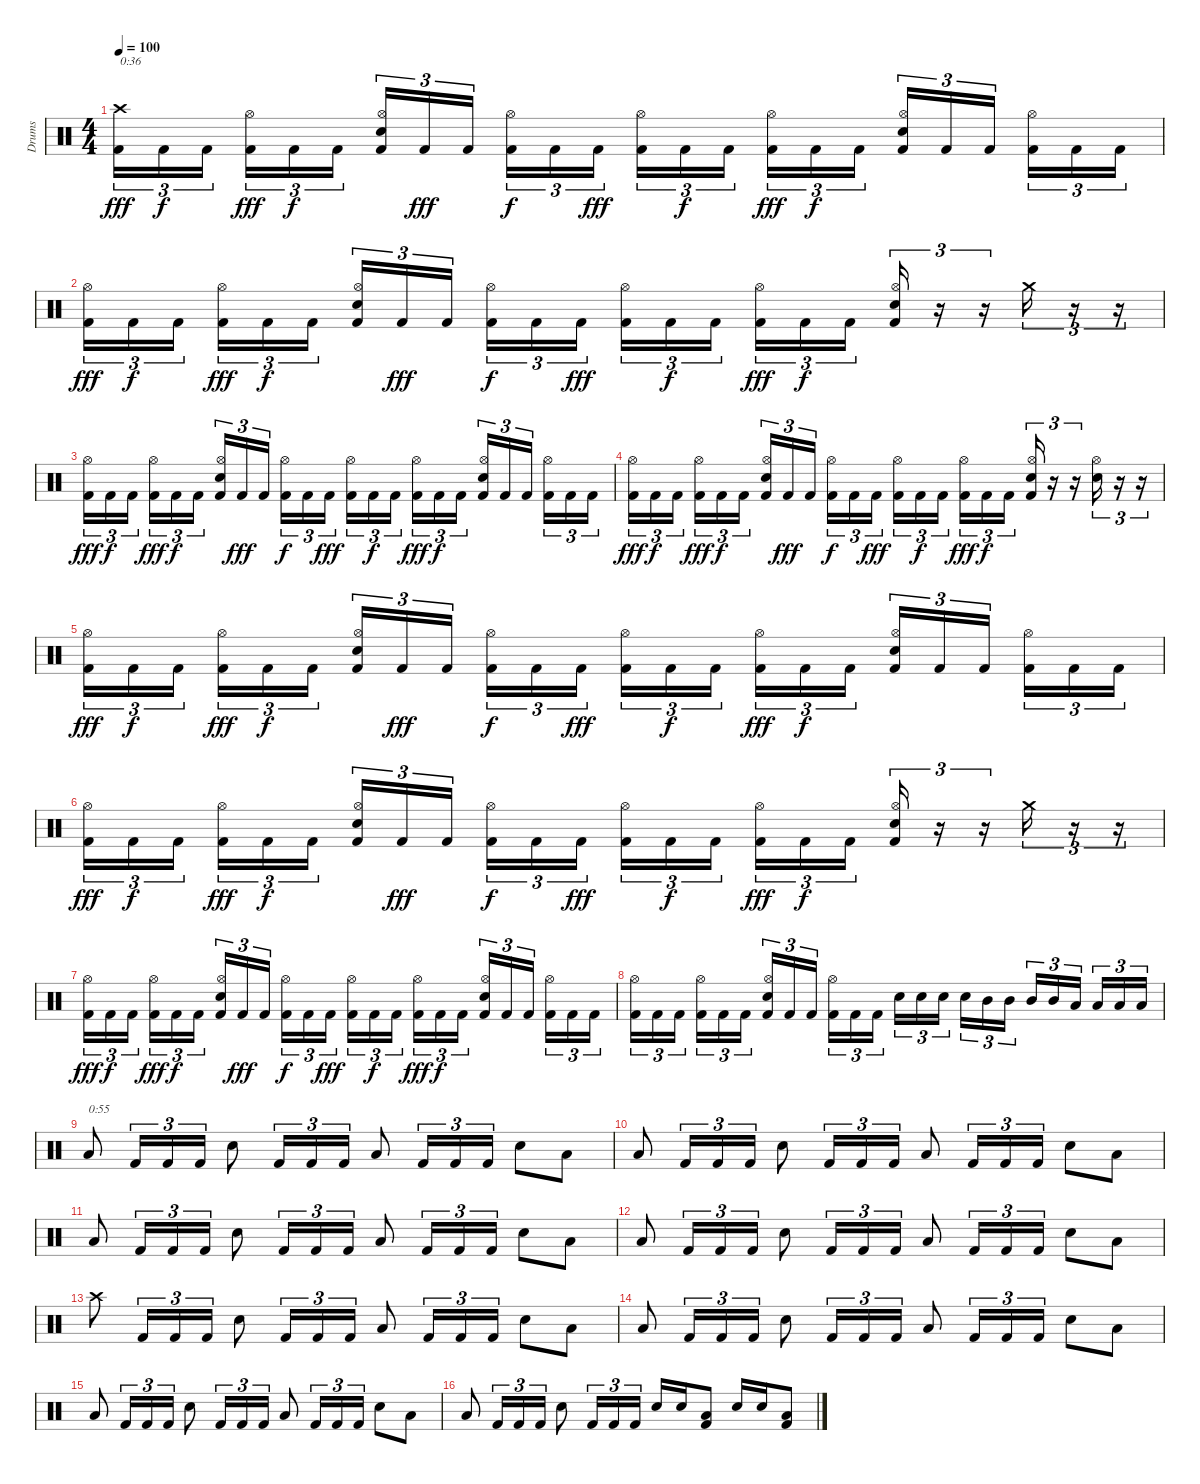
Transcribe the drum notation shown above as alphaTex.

\track ("Drums" "Drums") {instrument percussion}
\staff {score}
\articulation defaults
\ts (4 4)
\tempo 100
\clef neutral
\ks c
("Crash high (hit)" "Kick (hit) 2").16{tu (3 2) txt "0:36" dy fff} "Kick (hit) 2".16{tu (3 2) dy f} "Kick (hit) 2".16{tu (3 2)} ("Hi-Hat (open)" "Kick (hit) 2").16{tu (3 2) dy fff} "Kick (hit) 2".16{tu (3 2) dy f} "Kick (hit) 2".16{tu (3 2)} ("Hi-Hat (open)" "Electric Snare (hit)" "Kick (hit) 2").16{tu (3 2)} "Kick (hit) 2".16{tu (3 2) dy fff} "Kick (hit) 2".16{tu (3 2)} ("Hi-Hat (open)" "Kick (hit) 2").16{tu (3 2) dy f} "Kick (hit) 2".16{tu (3 2)} "Kick (hit) 2".16{tu (3 2) dy fff} ("Hi-Hat (open)" "Kick (hit) 2").16{tu (3 2)} "Kick (hit) 2".16{tu (3 2) dy f} "Kick (hit) 2".16{tu (3 2)} ("Hi-Hat (open)" "Kick (hit) 2").16{tu (3 2) dy fff} "Kick (hit) 2".16{tu (3 2) dy f} "Kick (hit) 2".16{tu (3 2)} ("Hi-Hat (open)" "Electric Snare (hit)" "Kick (hit) 2").16{tu (3 2)} "Kick (hit) 2".16{tu (3 2)} "Kick (hit) 2".16{tu (3 2)} ("Hi-Hat (open)" "Kick (hit) 2").16{tu (3 2)} "Kick (hit) 2".16{tu (3 2)} "Kick (hit) 2".16{tu (3 2)} |
("Hi-Hat (open)" "Kick (hit) 2").16{tu (3 2) dy fff} "Kick (hit) 2".16{tu (3 2) dy f} "Kick (hit) 2".16{tu (3 2)} ("Hi-Hat (open)" "Kick (hit) 2").16{tu (3 2) dy fff} "Kick (hit) 2".16{tu (3 2) dy f} "Kick (hit) 2".16{tu (3 2)} ("Hi-Hat (open)" "Electric Snare (hit)" "Kick (hit) 2").16{tu (3 2)} "Kick (hit) 2".16{tu (3 2) dy fff} "Kick (hit) 2".16{tu (3 2)} ("Hi-Hat (open)" "Kick (hit) 2").16{tu (3 2) dy f} "Kick (hit) 2".16{tu (3 2)} "Kick (hit) 2".16{tu (3 2) dy fff} ("Hi-Hat (open)" "Kick (hit) 2").16{tu (3 2)} "Kick (hit) 2".16{tu (3 2) dy f} "Kick (hit) 2".16{tu (3 2)} ("Hi-Hat (open)" "Kick (hit) 2").16{tu (3 2) dy fff} "Kick (hit) 2".16{tu (3 2) dy f} "Kick (hit) 2".16{tu (3 2)} ("Hi-Hat (open)" "Electric Snare (hit)" "Kick (hit) 2").16{tu (3 2)} r.16{tu (3 2)} r.16{tu (3 2)} "Crash medium (hit)".16{tu (3 2)} r.16{tu (3 2)} r.16{tu (3 2)} |
("Hi-Hat (open)" "Kick (hit) 2").16{tu (3 2) dy fff} "Kick (hit) 2".16{tu (3 2) dy f} "Kick (hit) 2".16{tu (3 2)} ("Hi-Hat (open)" "Kick (hit) 2").16{tu (3 2) dy fff} "Kick (hit) 2".16{tu (3 2) dy f} "Kick (hit) 2".16{tu (3 2)} ("Hi-Hat (open)" "Electric Snare (hit)" "Kick (hit) 2").16{tu (3 2)} "Kick (hit) 2".16{tu (3 2) dy fff} "Kick (hit) 2".16{tu (3 2)} ("Hi-Hat (open)" "Kick (hit) 2").16{tu (3 2) dy f} "Kick (hit) 2".16{tu (3 2)} "Kick (hit) 2".16{tu (3 2) dy fff} ("Hi-Hat (open)" "Kick (hit) 2").16{tu (3 2)} "Kick (hit) 2".16{tu (3 2) dy f} "Kick (hit) 2".16{tu (3 2)} ("Hi-Hat (open)" "Kick (hit) 2").16{tu (3 2) dy fff} "Kick (hit) 2".16{tu (3 2) dy f} "Kick (hit) 2".16{tu (3 2)} ("Hi-Hat (open)" "Electric Snare (hit)" "Kick (hit) 2").16{tu (3 2)} "Kick (hit) 2".16{tu (3 2)} "Kick (hit) 2".16{tu (3 2)} ("Hi-Hat (open)" "Kick (hit) 2").16{tu (3 2)} "Kick (hit) 2".16{tu (3 2)} "Kick (hit) 2".16{tu (3 2)} |
("Hi-Hat (open)" "Kick (hit) 2").16{tu (3 2) dy fff} "Kick (hit) 2".16{tu (3 2) dy f} "Kick (hit) 2".16{tu (3 2)} ("Hi-Hat (open)" "Kick (hit) 2").16{tu (3 2) dy fff} "Kick (hit) 2".16{tu (3 2) dy f} "Kick (hit) 2".16{tu (3 2)} ("Hi-Hat (open)" "Electric Snare (hit)" "Kick (hit) 2").16{tu (3 2)} "Kick (hit) 2".16{tu (3 2) dy fff} "Kick (hit) 2".16{tu (3 2)} ("Hi-Hat (open)" "Kick (hit) 2").16{tu (3 2) dy f} "Kick (hit) 2".16{tu (3 2)} "Kick (hit) 2".16{tu (3 2) dy fff} ("Hi-Hat (open)" "Kick (hit) 2").16{tu (3 2)} "Kick (hit) 2".16{tu (3 2) dy f} "Kick (hit) 2".16{tu (3 2)} ("Hi-Hat (open)" "Kick (hit) 2").16{tu (3 2) dy fff} "Kick (hit) 2".16{tu (3 2) dy f} "Kick (hit) 2".16{tu (3 2)} ("Hi-Hat (open)" "Electric Snare (hit)" "Kick (hit) 2").16{tu (3 2)} r.16{tu (3 2)} r.16{tu (3 2)} ("Hi-Hat (open)" "Electric Snare (hit)").16{tu (3 2)} r.16{tu (3 2)} r.16{tu (3 2)} |
("Hi-Hat (open)" "Kick (hit) 2").16{tu (3 2) dy fff} "Kick (hit) 2".16{tu (3 2) dy f} "Kick (hit) 2".16{tu (3 2)} ("Hi-Hat (open)" "Kick (hit) 2").16{tu (3 2) dy fff} "Kick (hit) 2".16{tu (3 2) dy f} "Kick (hit) 2".16{tu (3 2)} ("Hi-Hat (open)" "Electric Snare (hit)" "Kick (hit) 2").16{tu (3 2)} "Kick (hit) 2".16{tu (3 2) dy fff} "Kick (hit) 2".16{tu (3 2)} ("Hi-Hat (open)" "Kick (hit) 2").16{tu (3 2) dy f} "Kick (hit) 2".16{tu (3 2)} "Kick (hit) 2".16{tu (3 2) dy fff} ("Hi-Hat (open)" "Kick (hit) 2").16{tu (3 2)} "Kick (hit) 2".16{tu (3 2) dy f} "Kick (hit) 2".16{tu (3 2)} ("Hi-Hat (open)" "Kick (hit) 2").16{tu (3 2) dy fff} "Kick (hit) 2".16{tu (3 2) dy f} "Kick (hit) 2".16{tu (3 2)} ("Hi-Hat (open)" "Electric Snare (hit)" "Kick (hit) 2").16{tu (3 2)} "Kick (hit) 2".16{tu (3 2)} "Kick (hit) 2".16{tu (3 2)} ("Hi-Hat (open)" "Kick (hit) 2").16{tu (3 2)} "Kick (hit) 2".16{tu (3 2)} "Kick (hit) 2".16{tu (3 2)} |
("Hi-Hat (open)" "Kick (hit) 2").16{tu (3 2) dy fff} "Kick (hit) 2".16{tu (3 2) dy f} "Kick (hit) 2".16{tu (3 2)} ("Hi-Hat (open)" "Kick (hit) 2").16{tu (3 2) dy fff} "Kick (hit) 2".16{tu (3 2) dy f} "Kick (hit) 2".16{tu (3 2)} ("Hi-Hat (open)" "Electric Snare (hit)" "Kick (hit) 2").16{tu (3 2)} "Kick (hit) 2".16{tu (3 2) dy fff} "Kick (hit) 2".16{tu (3 2)} ("Hi-Hat (open)" "Kick (hit) 2").16{tu (3 2) dy f} "Kick (hit) 2".16{tu (3 2)} "Kick (hit) 2".16{tu (3 2) dy fff} ("Hi-Hat (open)" "Kick (hit) 2").16{tu (3 2)} "Kick (hit) 2".16{tu (3 2) dy f} "Kick (hit) 2".16{tu (3 2)} ("Hi-Hat (open)" "Kick (hit) 2").16{tu (3 2) dy fff} "Kick (hit) 2".16{tu (3 2) dy f} "Kick (hit) 2".16{tu (3 2)} ("Hi-Hat (open)" "Electric Snare (hit)" "Kick (hit) 2").16{tu (3 2)} r.16{tu (3 2)} r.16{tu (3 2)} "Crash medium (hit)".16{tu (3 2)} r.16{tu (3 2)} r.16{tu (3 2)} |
("Hi-Hat (open)" "Kick (hit) 2").16{tu (3 2) dy fff} "Kick (hit) 2".16{tu (3 2) dy f} "Kick (hit) 2".16{tu (3 2)} ("Hi-Hat (open)" "Kick (hit) 2").16{tu (3 2) dy fff} "Kick (hit) 2".16{tu (3 2) dy f} "Kick (hit) 2".16{tu (3 2)} ("Hi-Hat (open)" "Electric Snare (hit)" "Kick (hit) 2").16{tu (3 2)} "Kick (hit) 2".16{tu (3 2) dy fff} "Kick (hit) 2".16{tu (3 2)} ("Hi-Hat (open)" "Kick (hit) 2").16{tu (3 2) dy f} "Kick (hit) 2".16{tu (3 2)} "Kick (hit) 2".16{tu (3 2) dy fff} ("Hi-Hat (open)" "Kick (hit) 2").16{tu (3 2)} "Kick (hit) 2".16{tu (3 2) dy f} "Kick (hit) 2".16{tu (3 2)} ("Hi-Hat (open)" "Kick (hit) 2").16{tu (3 2) dy fff} "Kick (hit) 2".16{tu (3 2) dy f} "Kick (hit) 2".16{tu (3 2)} ("Hi-Hat (open)" "Electric Snare (hit)" "Kick (hit) 2").16{tu (3 2)} "Kick (hit) 2".16{tu (3 2)} "Kick (hit) 2".16{tu (3 2)} ("Hi-Hat (open)" "Kick (hit) 2").16{tu (3 2)} "Kick (hit) 2".16{tu (3 2)} "Kick (hit) 2".16{tu (3 2)} |
("Hi-Hat (open)" "Kick (hit) 2").16{tu (3 2)} "Kick (hit) 2".16{tu (3 2)} "Kick (hit) 2".16{tu (3 2)} ("Hi-Hat (open)" "Kick (hit) 2").16{tu (3 2)} "Kick (hit) 2".16{tu (3 2)} "Kick (hit) 2".16{tu (3 2)} ("Hi-Hat (open)" "Electric Snare (hit)" "Kick (hit) 2").16{tu (3 2)} "Kick (hit) 2".16{tu (3 2)} "Kick (hit) 2".16{tu (3 2)} ("Hi-Hat (open)" "Kick (hit) 2").16{tu (3 2)} "Kick (hit) 2".16{tu (3 2)} "Kick (hit) 2".16{tu (3 2)} "Electric Snare (hit)".16{tu (3 2)} "Electric Snare (hit)".16{tu (3 2)} "Electric Snare (hit)".16{tu (3 2)} "Electric Snare (hit)".16{tu (3 2)} "Mid Tom (hit)".16{tu (3 2)} "Mid Tom (hit)".16{tu (3 2)} "Mid Tom (hit)".16{tu (3 2)} "Mid Tom (hit)".16{tu (3 2)} "Low Tom (hit)".16{tu (3 2)} "Low Tom (hit)".16{tu (3 2)} "Low Tom (hit)".16{tu (3 2)} "Low Tom (hit)".16{tu (3 2)} |
"Low Tom (hit)".8{txt "0:55"} "Kick (hit) 2".16{tu (3 2)} "Kick (hit) 2".16{tu (3 2)} "Kick (hit) 2".16{tu (3 2)} "Electric Snare (hit)".8 "Kick (hit) 2".16{tu (3 2)} "Kick (hit) 2".16{tu (3 2)} "Kick (hit) 2".16{tu (3 2)} "Low Tom (hit)".8 "Kick (hit) 2".16{tu (3 2)} "Kick (hit) 2".16{tu (3 2)} "Kick (hit) 2".16{tu (3 2)} "Electric Snare (hit)".8 "Low Tom (hit)".8 |
"Low Tom (hit)".8 "Kick (hit) 2".16{tu (3 2)} "Kick (hit) 2".16{tu (3 2)} "Kick (hit) 2".16{tu (3 2)} "Electric Snare (hit)".8 "Kick (hit) 2".16{tu (3 2)} "Kick (hit) 2".16{tu (3 2)} "Kick (hit) 2".16{tu (3 2)} "Low Tom (hit)".8 "Kick (hit) 2".16{tu (3 2)} "Kick (hit) 2".16{tu (3 2)} "Kick (hit) 2".16{tu (3 2)} "Electric Snare (hit)".8 "Low Tom (hit)".8 |
"Low Tom (hit)".8 "Kick (hit) 2".16{tu (3 2)} "Kick (hit) 2".16{tu (3 2)} "Kick (hit) 2".16{tu (3 2)} "Electric Snare (hit)".8 "Kick (hit) 2".16{tu (3 2)} "Kick (hit) 2".16{tu (3 2)} "Kick (hit) 2".16{tu (3 2)} "Low Tom (hit)".8 "Kick (hit) 2".16{tu (3 2)} "Kick (hit) 2".16{tu (3 2)} "Kick (hit) 2".16{tu (3 2)} "Electric Snare (hit)".8 "Low Tom (hit)".8 |
"Low Tom (hit)".8 "Kick (hit) 2".16{tu (3 2)} "Kick (hit) 2".16{tu (3 2)} "Kick (hit) 2".16{tu (3 2)} "Electric Snare (hit)".8 "Kick (hit) 2".16{tu (3 2)} "Kick (hit) 2".16{tu (3 2)} "Kick (hit) 2".16{tu (3 2)} "Low Tom (hit)".8 "Kick (hit) 2".16{tu (3 2)} "Kick (hit) 2".16{tu (3 2)} "Kick (hit) 2".16{tu (3 2)} "Electric Snare (hit)".8 "Low Tom (hit)".8 |
"Crash high (hit)".8 "Kick (hit) 2".16{tu (3 2)} "Kick (hit) 2".16{tu (3 2)} "Kick (hit) 2".16{tu (3 2)} "Electric Snare (hit)".8 "Kick (hit) 2".16{tu (3 2)} "Kick (hit) 2".16{tu (3 2)} "Kick (hit) 2".16{tu (3 2)} "Low Tom (hit)".8 "Kick (hit) 2".16{tu (3 2)} "Kick (hit) 2".16{tu (3 2)} "Kick (hit) 2".16{tu (3 2)} "Electric Snare (hit)".8 "Low Tom (hit)".8 |
"Low Tom (hit)".8 "Kick (hit) 2".16{tu (3 2)} "Kick (hit) 2".16{tu (3 2)} "Kick (hit) 2".16{tu (3 2)} "Electric Snare (hit)".8 "Kick (hit) 2".16{tu (3 2)} "Kick (hit) 2".16{tu (3 2)} "Kick (hit) 2".16{tu (3 2)} "Low Tom (hit)".8 "Kick (hit) 2".16{tu (3 2)} "Kick (hit) 2".16{tu (3 2)} "Kick (hit) 2".16{tu (3 2)} "Electric Snare (hit)".8 "Low Tom (hit)".8 |
"Low Tom (hit)".8 "Kick (hit) 2".16{tu (3 2)} "Kick (hit) 2".16{tu (3 2)} "Kick (hit) 2".16{tu (3 2)} "Electric Snare (hit)".8 "Kick (hit) 2".16{tu (3 2)} "Kick (hit) 2".16{tu (3 2)} "Kick (hit) 2".16{tu (3 2)} "Low Tom (hit)".8 "Kick (hit) 2".16{tu (3 2)} "Kick (hit) 2".16{tu (3 2)} "Kick (hit) 2".16{tu (3 2)} "Electric Snare (hit)".8 "Low Tom (hit)".8 |
"Low Tom (hit)".8 "Kick (hit) 2".16{tu (3 2)} "Kick (hit) 2".16{tu (3 2)} "Kick (hit) 2".16{tu (3 2)} "Electric Snare (hit)".8 "Kick (hit) 2".16{tu (3 2)} "Kick (hit) 2".16{tu (3 2)} "Kick (hit) 2".16{tu (3 2)} "Electric Snare (hit)".16 "Electric Snare (hit)".16 ("Low Tom (hit)" "Kick (hit) 2").8 "Electric Snare (hit)".16 "Electric Snare (hit)".16 ("Low Tom (hit)" "Kick (hit) 2").8
